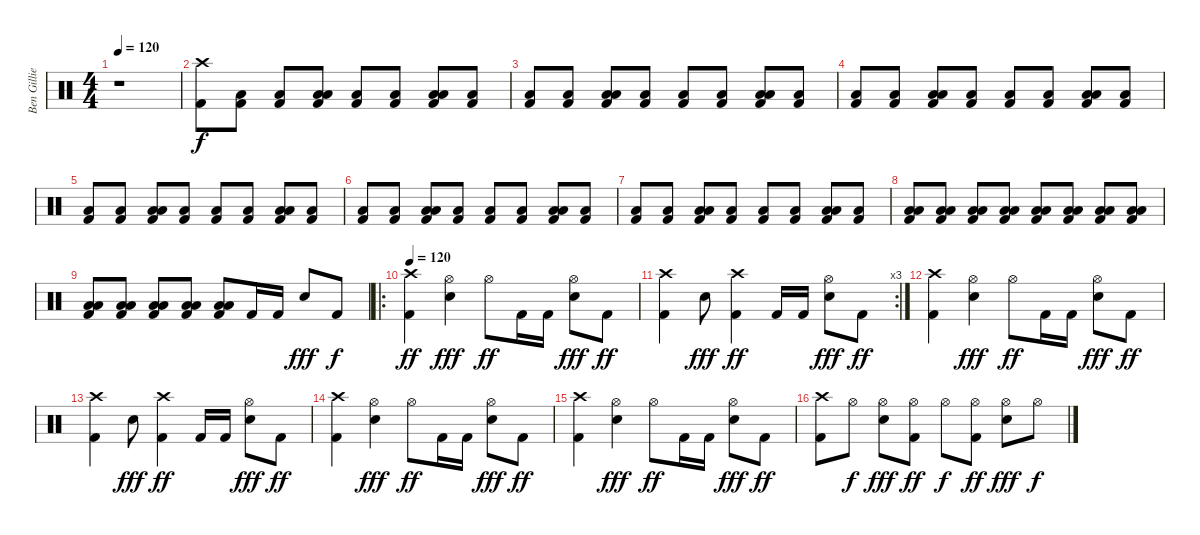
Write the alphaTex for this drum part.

\track ("Ben Gillies" "Ben Gillie") {instrument percussion}
\staff {score}
\articulation defaults
\ts (4 4)
\tempo 120
\tempo 107
\tempo 120
\clef neutral
\ks c
r.1{dy f} |
("Crash high (hit)" "Kick (hit) 2").8 ("Low Floor Tom (hit)" "Kick (hit) 2").8 ("Low Floor Tom (hit)" "Kick (hit) 2").8 ("Low Tom (hit)" "Low Floor Tom (hit)" "Kick (hit) 2").8 ("Low Floor Tom (hit)" "Kick (hit) 2").8 ("Low Floor Tom (hit)" "Kick (hit) 2").8 ("Low Tom (hit)" "Low Floor Tom (hit)" "Kick (hit) 2").8 ("Low Floor Tom (hit)" "Kick (hit) 2").8 |
("Low Floor Tom (hit)" "Kick (hit) 2").8 ("Low Floor Tom (hit)" "Kick (hit) 2").8 ("Low Tom (hit)" "Low Floor Tom (hit)" "Kick (hit) 2").8 ("Low Floor Tom (hit)" "Kick (hit) 2").8 ("Low Floor Tom (hit)" "Kick (hit) 2").8 ("Low Floor Tom (hit)" "Kick (hit) 2").8 ("Low Tom (hit)" "Low Floor Tom (hit)" "Kick (hit) 2").8 ("Low Floor Tom (hit)" "Kick (hit) 2").8 |
("Low Floor Tom (hit)" "Kick (hit) 2").8 ("Low Floor Tom (hit)" "Kick (hit) 2").8 ("Low Tom (hit)" "Low Floor Tom (hit)" "Kick (hit) 2").8 ("Low Floor Tom (hit)" "Kick (hit) 2").8 ("Low Floor Tom (hit)" "Kick (hit) 2").8 ("Low Floor Tom (hit)" "Kick (hit) 2").8 ("Low Tom (hit)" "Low Floor Tom (hit)" "Kick (hit) 2").8 ("Low Floor Tom (hit)" "Kick (hit) 2").8 |
("Low Floor Tom (hit)" "Kick (hit) 2").8 ("Low Floor Tom (hit)" "Kick (hit) 2").8 ("Low Tom (hit)" "Low Floor Tom (hit)" "Kick (hit) 2").8 ("Low Floor Tom (hit)" "Kick (hit) 2").8 ("Low Floor Tom (hit)" "Kick (hit) 2").8 ("Low Floor Tom (hit)" "Kick (hit) 2").8 ("Low Tom (hit)" "Low Floor Tom (hit)" "Kick (hit) 2").8 ("Low Floor Tom (hit)" "Kick (hit) 2").8 |
("Low Floor Tom (hit)" "Kick (hit) 2").8 ("Low Floor Tom (hit)" "Kick (hit) 2").8 ("Low Tom (hit)" "Low Floor Tom (hit)" "Kick (hit) 2").8 ("Low Floor Tom (hit)" "Kick (hit) 2").8 ("Low Floor Tom (hit)" "Kick (hit) 2").8 ("Low Floor Tom (hit)" "Kick (hit) 2").8 ("Low Tom (hit)" "Low Floor Tom (hit)" "Kick (hit) 2").8 ("Low Floor Tom (hit)" "Kick (hit) 2").8 |
("Low Floor Tom (hit)" "Kick (hit) 2").8 ("Low Floor Tom (hit)" "Kick (hit) 2").8 ("Low Tom (hit)" "Low Floor Tom (hit)" "Kick (hit) 2").8 ("Low Floor Tom (hit)" "Kick (hit) 2").8 ("Low Floor Tom (hit)" "Kick (hit) 2").8 ("Low Floor Tom (hit)" "Kick (hit) 2").8 ("Low Tom (hit)" "Low Floor Tom (hit)" "Kick (hit) 2").8 ("Low Floor Tom (hit)" "Kick (hit) 2").8 |
("Low Tom (hit)" "Low Floor Tom (hit)" "Kick (hit) 2").8 ("Low Tom (hit)" "Low Floor Tom (hit)" "Kick (hit) 2").8 ("Low Tom (hit)" "Low Floor Tom (hit)" "Kick (hit) 2").8 ("Low Tom (hit)" "Low Floor Tom (hit)" "Kick (hit) 2").8 ("Low Tom (hit)" "Low Floor Tom (hit)" "Kick (hit) 2").8 ("Low Tom (hit)" "Low Floor Tom (hit)" "Kick (hit) 2").8 ("Low Tom (hit)" "Low Floor Tom (hit)" "Kick (hit) 2").8 ("Low Tom (hit)" "Low Floor Tom (hit)" "Kick (hit) 2").8 |
("Low Tom (hit)" "Low Floor Tom (hit)" "Kick (hit) 2").8 ("Low Tom (hit)" "Low Floor Tom (hit)" "Kick (hit) 2").8 ("Low Tom (hit)" "Low Floor Tom (hit)" "Kick (hit) 2").8 ("Low Tom (hit)" "Low Floor Tom (hit)" "Kick (hit) 2").8 ("Low Tom (hit)" "Low Floor Tom (hit)" "Kick (hit) 2").8 "Kick (hit) 2".16 "Kick (hit) 2".16 "Electric Snare (hit)".8{dy fff} "Kick (hit) 2".8{dy f} |
\ro
\tempo 120
("Crash high (hit)" "Kick (hit) 2").4{dy ff} ("Hi-Hat (open)" "Electric Snare (hit)").4{dy fff} "Hi-Hat (open)".8{dy ff} "Kick (hit) 2".16 "Kick (hit) 2".16 ("Hi-Hat (open)" "Electric Snare (hit)").8{dy fff} "Kick (hit) 2".8{dy ff} |
\rc 3
("Crash high (hit)" "Kick (hit) 2").4 "Electric Snare (hit)".8{dy fff} ("Crash high (hit)" "Kick (hit) 2").4{dy ff} "Kick (hit) 2".16 "Kick (hit) 2".16 ("Hi-Hat (open)" "Electric Snare (hit)").8{dy fff} "Kick (hit) 2".8{dy ff} |
("Crash high (hit)" "Kick (hit) 2").4 ("Hi-Hat (open)" "Electric Snare (hit)").4{dy fff} "Hi-Hat (open)".8{dy ff} "Kick (hit) 2".16 "Kick (hit) 2".16 ("Hi-Hat (open)" "Electric Snare (hit)").8{dy fff} "Kick (hit) 2".8{dy ff} |
("Crash high (hit)" "Kick (hit) 2").4 "Electric Snare (hit)".8{dy fff} ("Crash high (hit)" "Kick (hit) 2").4{dy ff} "Kick (hit) 2".16 "Kick (hit) 2".16 ("Hi-Hat (open)" "Electric Snare (hit)").8{dy fff} "Kick (hit) 2".8{dy ff} |
("Crash high (hit)" "Kick (hit) 2").4 ("Hi-Hat (open)" "Electric Snare (hit)").4{dy fff} "Hi-Hat (open)".8{dy ff} "Kick (hit) 2".16 "Kick (hit) 2".16 ("Hi-Hat (open)" "Electric Snare (hit)").8{dy fff} "Kick (hit) 2".8{dy ff} |
("Crash high (hit)" "Kick (hit) 2").4 ("Hi-Hat (open)" "Electric Snare (hit)").4{dy fff} "Hi-Hat (open)".8{dy ff} "Kick (hit) 2".16 "Kick (hit) 2".16 ("Hi-Hat (open)" "Electric Snare (hit)").8{dy fff} "Kick (hit) 2".8{dy ff} |
("Crash high (hit)" "Kick (hit) 2").8 "Hi-Hat (open)".8{dy f} ("Hi-Hat (open)" "Electric Snare (hit)").8{dy fff} ("Hi-Hat (open)" "Kick (hit) 2").8{dy ff} "Hi-Hat (open)".8{dy f} ("Hi-Hat (open)" "Kick (hit) 2").8{dy ff} ("Hi-Hat (open)" "Electric Snare (hit)").8{dy fff} "Hi-Hat (open)".8{dy f}
